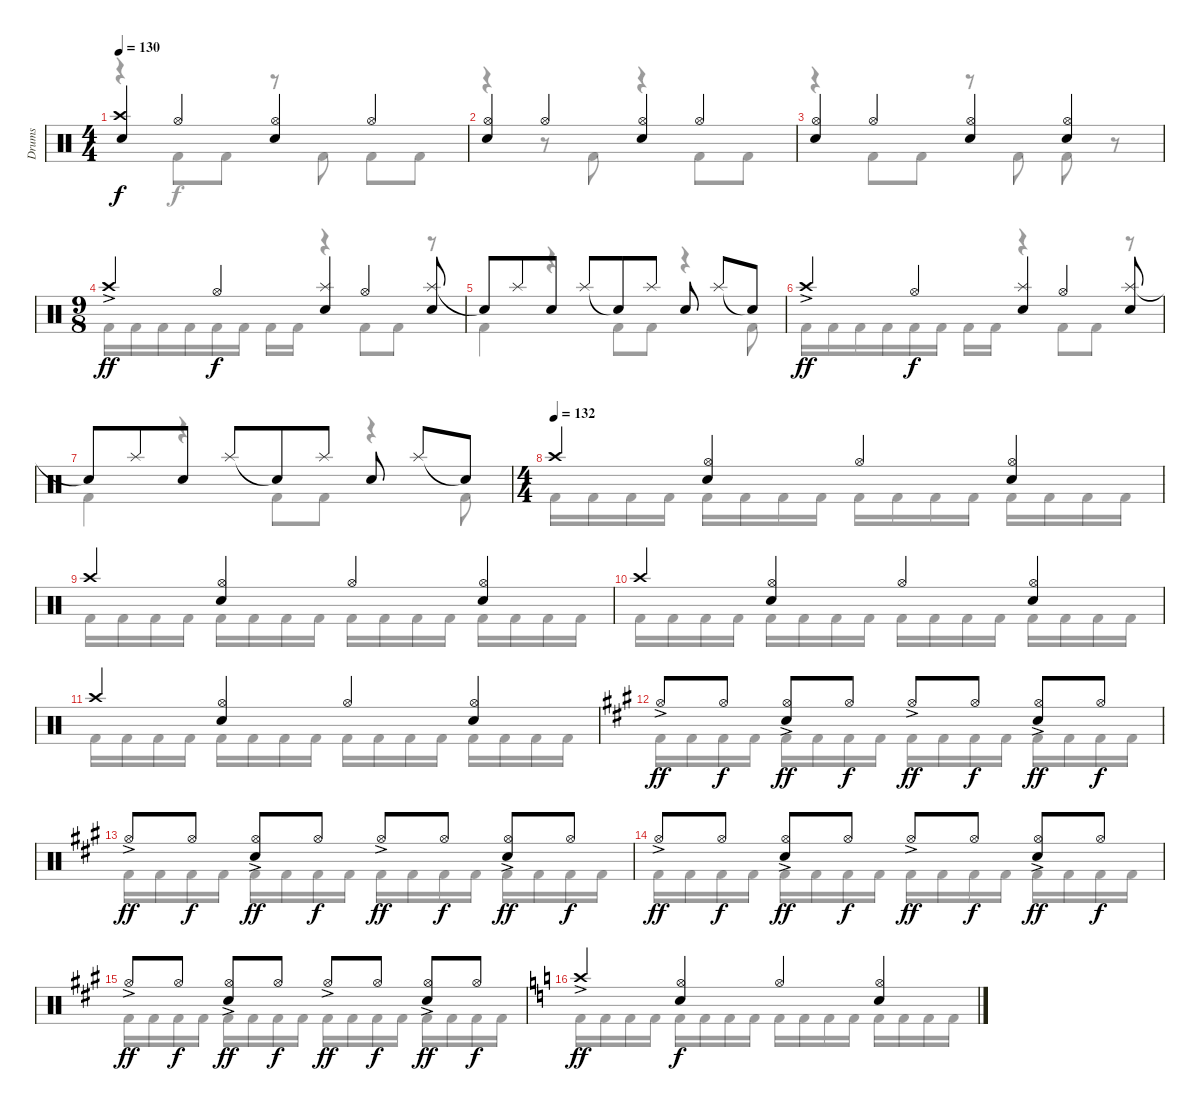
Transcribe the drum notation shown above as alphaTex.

\track ("Drums" "Drums") {instrument percussion}
\staff {score}
\articulation defaults
\voice
\ts (4 4)
\tempo 130
\clef neutral
\ks c
("Crash high (hit)" "Electric Snare (hit)").4{dy f} "Hi-Hat (open)".4 ("Hi-Hat (open)" "Electric Snare (hit)").4 "Hi-Hat (open)".4 |
("Hi-Hat (open)" "Electric Snare (hit)").4 "Hi-Hat (open)".4 ("Hi-Hat (open)" "Electric Snare (hit)").4 "Hi-Hat (open)".4 |
("Hi-Hat (open)" "Electric Snare (hit)").4 "Hi-Hat (open)".4 ("Hi-Hat (open)" "Electric Snare (hit)").4 ("Hi-Hat (open)" "Electric Snare (hit)").4 |
\ts (9 8)
"Crash high (hit)"{ac}.4{dy ff} "Hi-Hat (open)".4{dy f} ("Splash (hit)" "Electric Snare (hit)").4 "Hi-Hat (open)".4 ("Splash (hit)" "Electric Snare (hit)").8 |
"Snare (hit)"{t}.8 "Splash (hit)".8{beam merge} "Electric Snare (hit)".8{beam split} "Splash (hit)".8 "Snare (hit)"{t}.8{beam merge} "Splash (hit)".8 "Electric Snare (hit)".8{beam split} "Splash (hit)".8 "Snare (hit)"{t}.8 |
"Crash high (hit)"{ac}.4{dy ff} "Hi-Hat (open)".4{dy f} ("Splash (hit)" "Electric Snare (hit)").4 "Hi-Hat (open)".4 ("Splash (hit)" "Electric Snare (hit)").8 |
"Snare (hit)"{t}.8 "Splash (hit)".8{beam merge} "Electric Snare (hit)".8{beam split} "Splash (hit)".8 "Snare (hit)"{t}.8{beam merge} "Splash (hit)".8 "Electric Snare (hit)".8{beam split} "Splash (hit)".8 "Snare (hit)"{t}.8 |
\ts (4 4)
\tempo (132)
"Crash high (hit)".4 ("Hi-Hat (open)" "Electric Snare (hit)").4 "Hi-Hat (open)".4 ("Hi-Hat (open)" "Electric Snare (hit)").4 |
"Crash high (hit)".4 ("Hi-Hat (open)" "Electric Snare (hit)").4 "Hi-Hat (open)".4 ("Hi-Hat (open)" "Electric Snare (hit)").4 |
"Crash high (hit)".4 ("Hi-Hat (open)" "Electric Snare (hit)").4 "Hi-Hat (open)".4 ("Hi-Hat (open)" "Electric Snare (hit)").4 |
"Crash high (hit)".4 ("Hi-Hat (open)" "Electric Snare (hit)").4 "Hi-Hat (open)".4 ("Hi-Hat (open)" "Electric Snare (hit)").4 |
\ks a "Hi-Hat (open)"{ac}.8{dy ff} "Hi-Hat (open)".8{dy f}
("Hi-Hat (open)"{ac} "Electric Snare (hit)").8{dy ff} "Hi-Hat (open)".8{dy f} "Hi-Hat (open)"{ac}.8{dy ff} "Hi-Hat (open)".8{dy f} ("Hi-Hat (open)"{ac} "Electric Snare (hit)").8{dy ff} "Hi-Hat (open)".8{dy f} |
"Hi-Hat (open)"{ac}.8{dy ff} "Hi-Hat (open)".8{dy f} ("Hi-Hat (open)"{ac} "Electric Snare (hit)").8{dy ff} "Hi-Hat (open)".8{dy f} "Hi-Hat (open)"{ac}.8{dy ff} "Hi-Hat (open)".8{dy f} ("Hi-Hat (open)"{ac} "Electric Snare (hit)").8{dy ff} "Hi-Hat (open)".8{dy f} |
"Hi-Hat (open)"{ac}.8{dy ff} "Hi-Hat (open)".8{dy f} ("Hi-Hat (open)"{ac} "Electric Snare (hit)").8{dy ff} "Hi-Hat (open)".8{dy f} "Hi-Hat (open)"{ac}.8{dy ff} "Hi-Hat (open)".8{dy f} ("Hi-Hat (open)"{ac} "Electric Snare (hit)").8{dy ff} "Hi-Hat (open)".8{dy f} |
"Hi-Hat (open)"{ac}.8{dy ff} "Hi-Hat (open)".8{dy f} ("Hi-Hat (open)"{ac} "Electric Snare (hit)").8{dy ff} "Hi-Hat (open)".8{dy f} "Hi-Hat (open)"{ac}.8{dy ff} "Hi-Hat (open)".8{dy f} ("Hi-Hat (open)"{ac} "Electric Snare (hit)").8{dy ff} "Hi-Hat (open)".8{dy f} |
\ks c "Crash high (hit)"{ac}.4{dy ff}
("Hi-Hat (open)" "Electric Snare (hit)").4{dy f} "Hi-Hat (open)".4 ("Hi-Hat (open)" "Electric Snare (hit)").4
\voice
\clef neutral
\ottava regular
\simile none
\ks c
r.4{dy f} "Kick (hit) 2".8 "Kick (hit) 2".8 r.8 "Kick (hit) 2".8 "Kick (hit) 2".8 "Kick (hit) 2".8 |
r.4 r.8 "Kick (hit) 2".8 r.4 "Kick (hit) 2".8 "Kick (hit) 2".8 |
r.4 "Kick (hit) 2".8 "Kick (hit) 2".8 r.8 "Kick (hit) 2".8 "Kick (hit) 2".8 r.8 |
"Kick (hit) 2".16 "Kick (hit) 2".16 "Kick (hit) 2".16 "Kick (hit) 2".16 "Kick (hit) 2".16 "Kick (hit) 2".16 "Kick (hit) 2".16 "Kick (hit) 2".16 r.4 "Kick (hit) 2".8 "Kick (hit) 2".8 r.8 |
"Kick (hit) 2".4 r.4 "Kick (hit) 2".8 "Kick (hit) 2".8 r.4 "Kick (hit) 2".8 |
"Kick (hit) 2".16 "Kick (hit) 2".16 "Kick (hit) 2".16 "Kick (hit) 2".16 "Kick (hit) 2".16 "Kick (hit) 2".16 "Kick (hit) 2".16 "Kick (hit) 2".16 r.4 "Kick (hit) 2".8 "Kick (hit) 2".8 r.8 |
"Kick (hit) 2".4 r.4 "Kick (hit) 2".8 "Kick (hit) 2".8 r.4 "Kick (hit) 2".8 |
"Kick (hit) 2".16 "Kick (hit) 2".16 "Kick (hit) 2".16 "Kick (hit) 2".16 "Kick (hit) 2".16 "Kick (hit) 2".16 "Kick (hit) 2".16 "Kick (hit) 2".16 "Kick (hit) 2".16 "Kick (hit) 2".16 "Kick (hit) 2".16 "Kick (hit) 2".16 "Kick (hit) 2".16 "Kick (hit) 2".16 "Kick (hit) 2".16 "Kick (hit) 2".16 |
"Kick (hit) 2".16 "Kick (hit) 2".16 "Kick (hit) 2".16 "Kick (hit) 2".16 "Kick (hit) 2".16 "Kick (hit) 2".16 "Kick (hit) 2".16 "Kick (hit) 2".16 "Kick (hit) 2".16 "Kick (hit) 2".16 "Kick (hit) 2".16 "Kick (hit) 2".16 "Kick (hit) 2".16 "Kick (hit) 2".16 "Kick (hit) 2".16 "Kick (hit) 2".16 |
"Kick (hit) 2".16 "Kick (hit) 2".16 "Kick (hit) 2".16 "Kick (hit) 2".16 "Kick (hit) 2".16 "Kick (hit) 2".16 "Kick (hit) 2".16 "Kick (hit) 2".16 "Kick (hit) 2".16 "Kick (hit) 2".16 "Kick (hit) 2".16 "Kick (hit) 2".16 "Kick (hit) 2".16 "Kick (hit) 2".16 "Kick (hit) 2".16 "Kick (hit) 2".16 |
"Kick (hit) 2".16 "Kick (hit) 2".16 "Kick (hit) 2".16 "Kick (hit) 2".16 "Kick (hit) 2".16 "Kick (hit) 2".16 "Kick (hit) 2".16 "Kick (hit) 2".16 "Kick (hit) 2".16 "Kick (hit) 2".16 "Kick (hit) 2".16 "Kick (hit) 2".16 "Kick (hit) 2".16 "Kick (hit) 2".16 "Kick (hit) 2".16 "Kick (hit) 2".16 |
\ks a "Kick (hit) 2".16 "Kick (hit) 2".16 "Kick (hit) 2".16 "Kick (hit) 2".16 "Kick (hit) 2".16 "Kick (hit) 2".16 "Kick (hit) 2".16 "Kick (hit) 2".16 "Kick (hit) 2".16 "Kick (hit) 2".16 "Kick (hit) 2".16 "Kick (hit) 2".16 "Kick (hit) 2".16 "Kick (hit) 2".16 "Kick (hit) 2".16 "Kick (hit) 2".16
|
"Kick (hit) 2".16 "Kick (hit) 2".16 "Kick (hit) 2".16 "Kick (hit) 2".16 "Kick (hit) 2".16 "Kick (hit) 2".16 "Kick (hit) 2".16 "Kick (hit) 2".16 "Kick (hit) 2".16 "Kick (hit) 2".16 "Kick (hit) 2".16 "Kick (hit) 2".16 "Kick (hit) 2".16 "Kick (hit) 2".16 "Kick (hit) 2".16 "Kick (hit) 2".16 |
"Kick (hit) 2".16 "Kick (hit) 2".16 "Kick (hit) 2".16 "Kick (hit) 2".16 "Kick (hit) 2".16 "Kick (hit) 2".16 "Kick (hit) 2".16 "Kick (hit) 2".16 "Kick (hit) 2".16 "Kick (hit) 2".16 "Kick (hit) 2".16 "Kick (hit) 2".16 "Kick (hit) 2".16 "Kick (hit) 2".16 "Kick (hit) 2".16 "Kick (hit) 2".16 |
"Kick (hit) 2".16 "Kick (hit) 2".16 "Kick (hit) 2".16 "Kick (hit) 2".16 "Kick (hit) 2".16 "Kick (hit) 2".16 "Kick (hit) 2".16 "Kick (hit) 2".16 "Kick (hit) 2".16 "Kick (hit) 2".16 "Kick (hit) 2".16 "Kick (hit) 2".16 "Kick (hit) 2".16 "Kick (hit) 2".16 "Kick (hit) 2".16 "Kick (hit) 2".16 |
\ks c "Kick (hit) 2".16 "Kick (hit) 2".16 "Kick (hit) 2".16 "Kick (hit) 2".16 "Kick (hit) 2".16 "Kick (hit) 2".16 "Kick (hit) 2".16 "Kick (hit) 2".16 "Kick (hit) 2".16 "Kick (hit) 2".16 "Kick (hit) 2".16 "Kick (hit) 2".16 "Kick (hit) 2".16 "Kick (hit) 2".16 "Kick (hit) 2".16 "Kick (hit) 2".16
